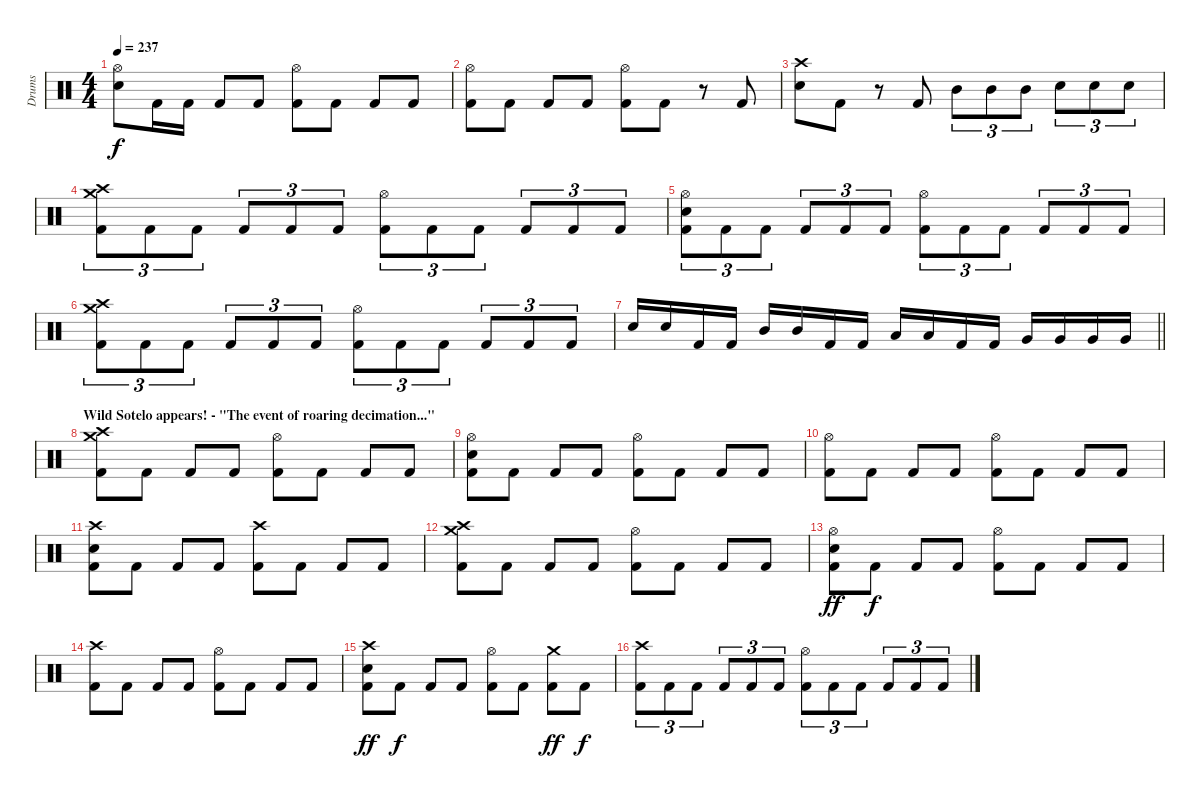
\track ("Drums" "Drums") {instrument percussion}
\staff {score}
\articulation defaults
\ts (4 4)
\tempo 237
\clef neutral
\ks c
("Hi-Hat (open)" "Electric Snare (hit)").8{dy f} "Kick (hit) 2".16 "Kick (hit) 2".16 "Kick (hit) 2".8 "Kick (hit) 2".8 ("Hi-Hat (open)" "Kick (hit) 2").8 "Kick (hit) 2".8 "Kick (hit) 2".8 "Kick (hit) 2".8 |
("Hi-Hat (open)" "Kick (hit) 2").8 "Kick (hit) 2".8 "Kick (hit) 2".8 "Kick (hit) 2".8 ("Hi-Hat (open)" "Kick (hit) 2").8 "Kick (hit) 2".8 r.8 "Kick (hit) 2".8 |
("Crash high (hit)" "Electric Snare (hit)").8 "Kick (hit) 2".8 r.8 "Kick (hit) 2".8 "Mid Tom (hit)".8{tu (3 2)} "Mid Tom (hit)".8{tu (3 2)} "Mid Tom (hit)".8{tu (3 2)} "Electric Snare (hit)".8{tu (3 2)} "Electric Snare (hit)".8{tu (3 2)} "Electric Snare (hit)".8{tu (3 2)} |
("Crash high (hit)" "Crash medium (hit)" "Kick (hit) 2").8{tu (3 2)} "Kick (hit) 2".8{tu (3 2)} "Kick (hit) 2".8{tu (3 2)} "Kick (hit) 2".8{tu (3 2)} "Kick (hit) 2".8{tu (3 2)} "Kick (hit) 2".8{tu (3 2)} ("Hi-Hat (open)" "Kick (hit) 2").8{tu (3 2)} "Kick (hit) 2".8{tu (3 2)} "Kick (hit) 2".8{tu (3 2)} "Kick (hit) 2".8{tu (3 2)} "Kick (hit) 2".8{tu (3 2)} "Kick (hit) 2".8{tu (3 2)} |
("Hi-Hat (open)" "Electric Snare (hit)" "Kick (hit) 2").8{tu (3 2)} "Kick (hit) 2".8{tu (3 2)} "Kick (hit) 2".8{tu (3 2)} "Kick (hit) 2".8{tu (3 2)} "Kick (hit) 2".8{tu (3 2)} "Kick (hit) 2".8{tu (3 2)} ("Hi-Hat (open)" "Kick (hit) 2").8{tu (3 2)} "Kick (hit) 2".8{tu (3 2)} "Kick (hit) 2".8{tu (3 2)} "Kick (hit) 2".8{tu (3 2)} "Kick (hit) 2".8{tu (3 2)} "Kick (hit) 2".8{tu (3 2)} |
("Crash high (hit)" "Crash medium (hit)" "Kick (hit) 2").8{tu (3 2)} "Kick (hit) 2".8{tu (3 2)} "Kick (hit) 2".8{tu (3 2)} "Kick (hit) 2".8{tu (3 2)} "Kick (hit) 2".8{tu (3 2)} "Kick (hit) 2".8{tu (3 2)} ("Hi-Hat (open)" "Kick (hit) 2").8{tu (3 2)} "Kick (hit) 2".8{tu (3 2)} "Kick (hit) 2".8{tu (3 2)} "Kick (hit) 2".8{tu (3 2)} "Kick (hit) 2".8{tu (3 2)} "Kick (hit) 2".8{tu (3 2)} |
\barLineRight lightlight "Electric Snare (hit)".16 "Electric Snare (hit)".16 "Kick (hit) 2".16 "Kick (hit) 2".16 "Mid Tom (hit)".16 "Mid Tom (hit)".16 "Kick (hit) 2".16 "Kick (hit) 2".16 "Low Tom (hit)".16 "Low Tom (hit)".16 "Kick (hit) 2".16 "Kick (hit) 2".16 "Very Low Tom (hit)".16 "Very Low Tom (hit)".16 "Very Low Tom (hit)".16 "Very Low Tom (hit)".16
|
\section ("" "Wild Sotelo appears! - \"The event of roaring decimation...\"")
("Crash high (hit)" "Crash medium (hit)" "Kick (hit) 2").8 "Kick (hit) 2".8 "Kick (hit) 2".8 "Kick (hit) 2".8 ("Hi-Hat (open)" "Kick (hit) 2").8 "Kick (hit) 2".8 "Kick (hit) 2".8 "Kick (hit) 2".8 |
("Hi-Hat (open)" "Electric Snare (hit)" "Kick (hit) 2").8 "Kick (hit) 2".8 "Kick (hit) 2".8 "Kick (hit) 2".8 ("Hi-Hat (open)" "Kick (hit) 2").8 "Kick (hit) 2".8 "Kick (hit) 2".8 "Kick (hit) 2".8 |
("Hi-Hat (open)" "Kick (hit) 2").8 "Kick (hit) 2".8 "Kick (hit) 2".8 "Kick (hit) 2".8 ("Hi-Hat (open)" "Kick (hit) 2").8 "Kick (hit) 2".8 "Kick (hit) 2".8 "Kick (hit) 2".8 |
("Crash high (hit)" "Electric Snare (hit)" "Kick (hit) 2").8 "Kick (hit) 2".8 "Kick (hit) 2".8 "Kick (hit) 2".8 ("Crash high (hit)" "Kick (hit) 2").8 "Kick (hit) 2".8 "Kick (hit) 2".8 "Kick (hit) 2".8 |
("Crash high (hit)" "Crash medium (hit)" "Kick (hit) 2").8 "Kick (hit) 2".8 "Kick (hit) 2".8 "Kick (hit) 2".8 ("Hi-Hat (open)" "Kick (hit) 2").8 "Kick (hit) 2".8 "Kick (hit) 2".8 "Kick (hit) 2".8 |
("Hi-Hat (open)" "Electric Snare (hit)" "Kick (hit) 2").8{dy ff} "Kick (hit) 2".8{dy f} "Kick (hit) 2".8 "Kick (hit) 2".8 ("Hi-Hat (open)" "Kick (hit) 2").8 "Kick (hit) 2".8 "Kick (hit) 2".8 "Kick (hit) 2".8 |
("Crash high (hit)" "Kick (hit) 2").8 "Kick (hit) 2".8 "Kick (hit) 2".8 "Kick (hit) 2".8 ("Hi-Hat (open)" "Kick (hit) 2").8 "Kick (hit) 2".8 "Kick (hit) 2".8 "Kick (hit) 2".8 |
("Crash high (hit)" "Electric Snare (hit)" "Kick (hit) 2").8{dy ff} "Kick (hit) 2".8{dy f} "Kick (hit) 2".8 "Kick (hit) 2".8 ("Hi-Hat (open)" "Kick (hit) 2").8 "Kick (hit) 2".8 ("Crash medium (hit)" "Kick (hit) 2").8{dy ff} "Kick (hit) 2".8{dy f} |
("Crash high (hit)" "Kick (hit) 2").8{tu (3 2)} "Kick (hit) 2".8{tu (3 2)} "Kick (hit) 2".8{tu (3 2)} "Kick (hit) 2".8{tu (3 2)} "Kick (hit) 2".8{tu (3 2)} "Kick (hit) 2".8{tu (3 2)} ("Hi-Hat (open)" "Kick (hit) 2").8{tu (3 2)} "Kick (hit) 2".8{tu (3 2)} "Kick (hit) 2".8{tu (3 2)} "Kick (hit) 2".8{tu (3 2)} "Kick (hit) 2".8{tu (3 2)} "Kick (hit) 2".8{tu (3 2)}
